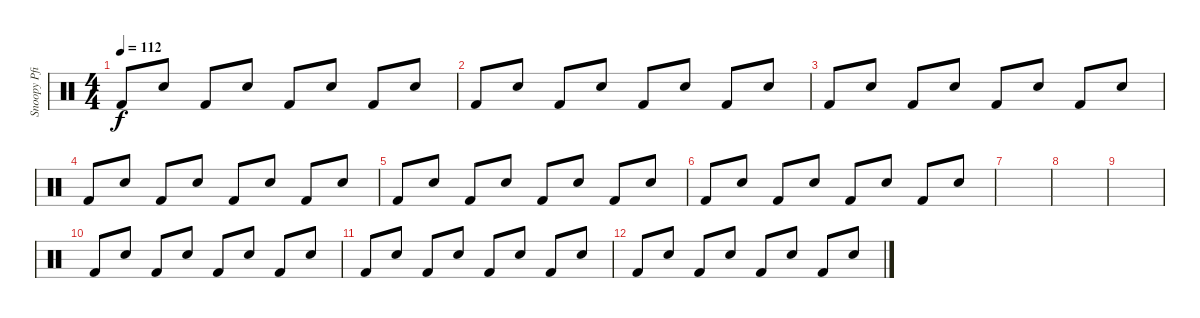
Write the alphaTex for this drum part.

\track ("Snoopy Pfisterer (percussion)" "Snoopy Pfi") {instrument percussion}
\staff {score}
\articulation defaults
\ts (4 4)
\tempo 112
\clef neutral
\ks c "Kick (hit) 2".8{dy f} "Snare (hit) 2".8 "Kick (hit) 2".8 "Snare (hit) 2".8 "Kick (hit) 2".8 "Snare (hit) 2".8 "Kick (hit) 2".8 "Snare (hit) 2".8
|
"Kick (hit) 2".8 "Snare (hit) 2".8 "Kick (hit) 2".8 "Snare (hit) 2".8 "Kick (hit) 2".8 "Snare (hit) 2".8 "Kick (hit) 2".8 "Snare (hit) 2".8 |
"Kick (hit) 2".8 "Snare (hit) 2".8 "Kick (hit) 2".8 "Snare (hit) 2".8 "Kick (hit) 2".8 "Snare (hit) 2".8 "Kick (hit) 2".8 "Snare (hit) 2".8 |
"Kick (hit) 2".8 "Snare (hit) 2".8 "Kick (hit) 2".8 "Snare (hit) 2".8 "Kick (hit) 2".8 "Snare (hit) 2".8 "Kick (hit) 2".8 "Snare (hit) 2".8 |
"Kick (hit) 2".8 "Snare (hit) 2".8 "Kick (hit) 2".8 "Snare (hit) 2".8 "Kick (hit) 2".8 "Snare (hit) 2".8 "Kick (hit) 2".8 "Snare (hit) 2".8 |
"Kick (hit) 2".8 "Snare (hit) 2".8 "Kick (hit) 2".8 "Snare (hit) 2".8 "Kick (hit) 2".8 "Snare (hit) 2".8 "Kick (hit) 2".8 "Snare (hit) 2".8 |
|
|
|
"Kick (hit) 2".8 "Snare (hit) 2".8 "Kick (hit) 2".8 "Snare (hit) 2".8 "Kick (hit) 2".8 "Snare (hit) 2".8 "Kick (hit) 2".8 "Snare (hit) 2".8 |
"Kick (hit) 2".8 "Snare (hit) 2".8 "Kick (hit) 2".8 "Snare (hit) 2".8 "Kick (hit) 2".8 "Snare (hit) 2".8 "Kick (hit) 2".8 "Snare (hit) 2".8 |
"Kick (hit) 2".8 "Snare (hit) 2".8 "Kick (hit) 2".8 "Snare (hit) 2".8 "Kick (hit) 2".8 "Snare (hit) 2".8 "Kick (hit) 2".8 "Snare (hit) 2".8
